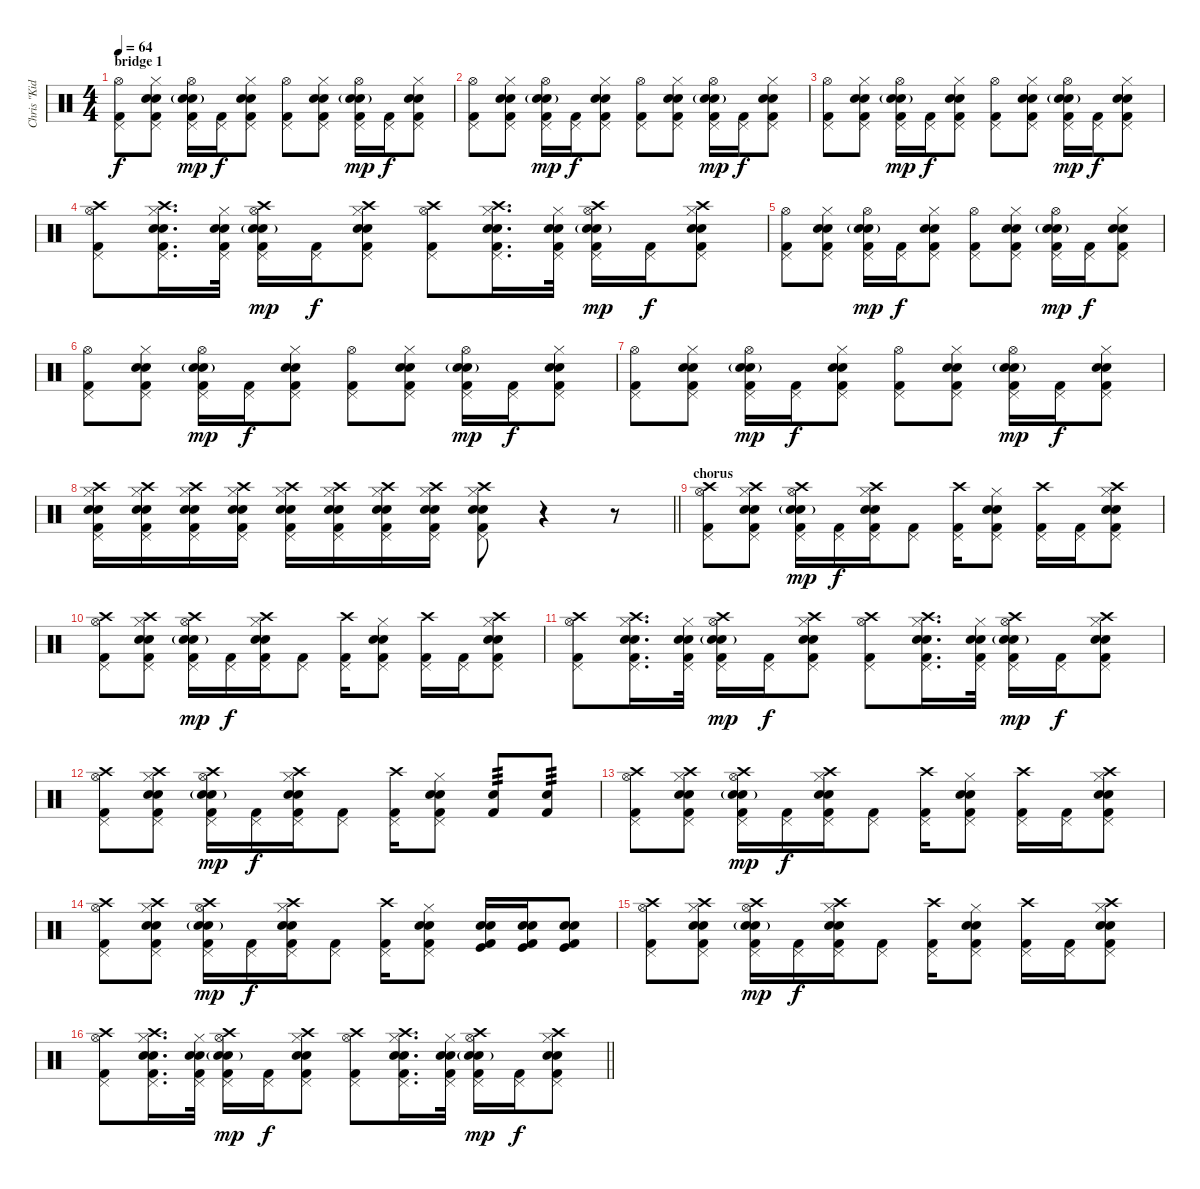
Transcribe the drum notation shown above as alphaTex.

\track ("Chris \"Kid\" Knapp" "Chris \"Kid") {instrument percussion}
\staff {score}
\articulation defaults
\ts (4 4)
\section ("" "bridge 1")
\tempo 64
\clef neutral
\ks c
("Hi-Hat (open)" "Kick (hit) 2" "Pedal Hi-Hat (hit)").8{dy f} ("Snare (hit) 2" "Snare (hit) 2" "Hi-Hat (closed)" "Kick (hit) 2" "Pedal Hi-Hat (hit)").8 ("Snare (hit) 2"{g} "Snare (hit) 2"{g} "Hi-Hat (open)" "Kick (hit) 2" "Pedal Hi-Hat (hit)").16{dy mp} ("Kick (hit) 2" "Pedal Hi-Hat (hit)").16{dy f} ("Snare (hit) 2" "Snare (hit) 2" "Hi-Hat (closed)" "Kick (hit) 2" "Pedal Hi-Hat (hit)").8 ("Hi-Hat (open)" "Kick (hit) 2" "Pedal Hi-Hat (hit)").8 ("Snare (hit) 2" "Snare (hit) 2" "Hi-Hat (closed)" "Kick (hit) 2" "Pedal Hi-Hat (hit)").8 ("Snare (hit) 2"{g} "Snare (hit) 2"{g} "Hi-Hat (open)" "Kick (hit) 2" "Pedal Hi-Hat (hit)").16{dy mp} ("Kick (hit) 2" "Pedal Hi-Hat (hit)").16{dy f} ("Snare (hit) 2" "Snare (hit) 2" "Hi-Hat (closed)" "Kick (hit) 2" "Pedal Hi-Hat (hit)").8 |
("Hi-Hat (open)" "Kick (hit) 2" "Pedal Hi-Hat (hit)").8 ("Snare (hit) 2" "Snare (hit) 2" "Hi-Hat (closed)" "Kick (hit) 2" "Pedal Hi-Hat (hit)").8 ("Snare (hit) 2"{g} "Snare (hit) 2"{g} "Hi-Hat (open)" "Kick (hit) 2" "Pedal Hi-Hat (hit)").16{dy mp} ("Kick (hit) 2" "Pedal Hi-Hat (hit)").16{dy f} ("Snare (hit) 2" "Snare (hit) 2" "Hi-Hat (closed)" "Kick (hit) 2" "Pedal Hi-Hat (hit)").8 ("Hi-Hat (open)" "Kick (hit) 2" "Pedal Hi-Hat (hit)").8 ("Snare (hit) 2" "Snare (hit) 2" "Hi-Hat (closed)" "Kick (hit) 2" "Pedal Hi-Hat (hit)").8 ("Snare (hit) 2"{g} "Snare (hit) 2"{g} "Hi-Hat (open)" "Kick (hit) 2" "Pedal Hi-Hat (hit)").16{dy mp} ("Kick (hit) 2" "Pedal Hi-Hat (hit)").16{dy f} ("Snare (hit) 2" "Snare (hit) 2" "Hi-Hat (closed)" "Kick (hit) 2" "Pedal Hi-Hat (hit)").8 |
("Hi-Hat (open)" "Kick (hit) 2" "Pedal Hi-Hat (hit)").8 ("Snare (hit) 2" "Snare (hit) 2" "Hi-Hat (closed)" "Kick (hit) 2" "Pedal Hi-Hat (hit)").8 ("Snare (hit) 2"{g} "Snare (hit) 2"{g} "Hi-Hat (open)" "Kick (hit) 2" "Pedal Hi-Hat (hit)").16{dy mp} ("Kick (hit) 2" "Pedal Hi-Hat (hit)").16{dy f} ("Snare (hit) 2" "Snare (hit) 2" "Hi-Hat (closed)" "Kick (hit) 2" "Pedal Hi-Hat (hit)").8 ("Hi-Hat (open)" "Kick (hit) 2" "Pedal Hi-Hat (hit)").8 ("Snare (hit) 2" "Snare (hit) 2" "Hi-Hat (closed)" "Kick (hit) 2" "Pedal Hi-Hat (hit)").8 ("Snare (hit) 2"{g} "Snare (hit) 2"{g} "Hi-Hat (open)" "Kick (hit) 2" "Pedal Hi-Hat (hit)").16{dy mp} ("Kick (hit) 2" "Pedal Hi-Hat (hit)").16{dy f} ("Snare (hit) 2" "Snare (hit) 2" "Hi-Hat (closed)" "Kick (hit) 2" "Pedal Hi-Hat (hit)").8 |
("Hi-Hat (open)" "Kick (hit) 2" "Pedal Hi-Hat (hit)" "Crash high (hit)").8 ("Snare (hit) 2" "Snare (hit) 2" "Hi-Hat (closed)" "Kick (hit) 2" "Pedal Hi-Hat (hit)" "Crash high (hit)").16{d} ("Snare (hit) 2" "Snare (hit) 2" "Hi-Hat (closed)" "Kick (hit) 2" "Pedal Hi-Hat (hit)").32 ("Snare (hit) 2"{g} "Snare (hit) 2"{g} "Hi-Hat (open)" "Kick (hit) 2" "Pedal Hi-Hat (hit)" "Crash high (hit)").16{dy mp} ("Kick (hit) 2" "Pedal Hi-Hat (hit)").16{dy f} ("Snare (hit) 2" "Snare (hit) 2" "Hi-Hat (closed)" "Kick (hit) 2" "Pedal Hi-Hat (hit)" "Crash high (hit)").8 ("Hi-Hat (open)" "Kick (hit) 2" "Pedal Hi-Hat (hit)" "Crash high (hit)").8 ("Snare (hit) 2" "Snare (hit) 2" "Hi-Hat (closed)" "Kick (hit) 2" "Pedal Hi-Hat (hit)" "Crash high (hit)").16{d} ("Snare (hit) 2" "Snare (hit) 2" "Hi-Hat (closed)" "Kick (hit) 2" "Pedal Hi-Hat (hit)").32 ("Snare (hit) 2"{g} "Snare (hit) 2"{g} "Hi-Hat (open)" "Kick (hit) 2" "Pedal Hi-Hat (hit)" "Crash high (hit)").16{dy mp} ("Kick (hit) 2" "Pedal Hi-Hat (hit)").16{dy f} ("Snare (hit) 2" "Snare (hit) 2" "Hi-Hat (closed)" "Kick (hit) 2" "Pedal Hi-Hat (hit)" "Crash high (hit)").8 |
("Hi-Hat (open)" "Kick (hit) 2" "Pedal Hi-Hat (hit)").8 ("Snare (hit) 2" "Snare (hit) 2" "Hi-Hat (closed)" "Kick (hit) 2" "Pedal Hi-Hat (hit)").8 ("Snare (hit) 2"{g} "Snare (hit) 2"{g} "Hi-Hat (open)" "Kick (hit) 2" "Pedal Hi-Hat (hit)").16{dy mp} ("Kick (hit) 2" "Pedal Hi-Hat (hit)").16{dy f} ("Snare (hit) 2" "Snare (hit) 2" "Hi-Hat (closed)" "Kick (hit) 2" "Pedal Hi-Hat (hit)").8 ("Hi-Hat (open)" "Kick (hit) 2" "Pedal Hi-Hat (hit)").8 ("Snare (hit) 2" "Snare (hit) 2" "Hi-Hat (closed)" "Kick (hit) 2" "Pedal Hi-Hat (hit)").8 ("Snare (hit) 2"{g} "Snare (hit) 2"{g} "Hi-Hat (open)" "Kick (hit) 2" "Pedal Hi-Hat (hit)").16{dy mp} ("Kick (hit) 2" "Pedal Hi-Hat (hit)").16{dy f} ("Snare (hit) 2" "Snare (hit) 2" "Hi-Hat (closed)" "Kick (hit) 2" "Pedal Hi-Hat (hit)").8 |
("Hi-Hat (open)" "Kick (hit) 2" "Pedal Hi-Hat (hit)").8 ("Snare (hit) 2" "Snare (hit) 2" "Hi-Hat (closed)" "Kick (hit) 2" "Pedal Hi-Hat (hit)").8 ("Snare (hit) 2"{g} "Snare (hit) 2"{g} "Hi-Hat (open)" "Kick (hit) 2" "Pedal Hi-Hat (hit)").16{dy mp} ("Kick (hit) 2" "Pedal Hi-Hat (hit)").16{dy f} ("Snare (hit) 2" "Snare (hit) 2" "Hi-Hat (closed)" "Kick (hit) 2" "Pedal Hi-Hat (hit)").8 ("Hi-Hat (open)" "Kick (hit) 2" "Pedal Hi-Hat (hit)").8 ("Snare (hit) 2" "Snare (hit) 2" "Hi-Hat (closed)" "Kick (hit) 2" "Pedal Hi-Hat (hit)").8 ("Snare (hit) 2"{g} "Snare (hit) 2"{g} "Hi-Hat (open)" "Kick (hit) 2" "Pedal Hi-Hat (hit)").16{dy mp} ("Kick (hit) 2" "Pedal Hi-Hat (hit)").16{dy f} ("Snare (hit) 2" "Snare (hit) 2" "Hi-Hat (closed)" "Kick (hit) 2" "Pedal Hi-Hat (hit)").8 |
("Hi-Hat (open)" "Kick (hit) 2" "Pedal Hi-Hat (hit)").8 ("Snare (hit) 2" "Snare (hit) 2" "Hi-Hat (closed)" "Kick (hit) 2" "Pedal Hi-Hat (hit)").8 ("Snare (hit) 2"{g} "Snare (hit) 2"{g} "Hi-Hat (open)" "Kick (hit) 2" "Pedal Hi-Hat (hit)").16{dy mp} ("Kick (hit) 2" "Pedal Hi-Hat (hit)").16{dy f} ("Snare (hit) 2" "Snare (hit) 2" "Hi-Hat (closed)" "Kick (hit) 2" "Pedal Hi-Hat (hit)").8 ("Hi-Hat (open)" "Kick (hit) 2" "Pedal Hi-Hat (hit)").8 ("Snare (hit) 2" "Snare (hit) 2" "Hi-Hat (closed)" "Kick (hit) 2" "Pedal Hi-Hat (hit)").8 ("Snare (hit) 2"{g} "Snare (hit) 2"{g} "Hi-Hat (open)" "Kick (hit) 2" "Pedal Hi-Hat (hit)").16{dy mp} ("Kick (hit) 2" "Pedal Hi-Hat (hit)").16{dy f} ("Snare (hit) 2" "Snare (hit) 2" "Hi-Hat (closed)" "Kick (hit) 2" "Pedal Hi-Hat (hit)").8 |
\barLineRight lightlight
("Snare (hit) 2" "Snare (hit) 2" "Hi-Hat (closed)" "Kick (hit) 2" "Pedal Hi-Hat (hit)" "Crash high (hit)").16 ("Snare (hit) 2" "Snare (hit) 2" "Hi-Hat (closed)" "Kick (hit) 2" "Pedal Hi-Hat (hit)" "Crash high (hit)").16 ("Snare (hit) 2" "Snare (hit) 2" "Hi-Hat (closed)" "Kick (hit) 2" "Pedal Hi-Hat (hit)" "Crash high (hit)").16 ("Snare (hit) 2" "Snare (hit) 2" "Hi-Hat (closed)" "Kick (hit) 2" "Pedal Hi-Hat (hit)" "Crash high (hit)").16 ("Snare (hit) 2" "Snare (hit) 2" "Hi-Hat (closed)" "Kick (hit) 2" "Pedal Hi-Hat (hit)" "Crash high (hit)").16 ("Snare (hit) 2" "Snare (hit) 2" "Hi-Hat (closed)" "Kick (hit) 2" "Pedal Hi-Hat (hit)" "Crash high (hit)").16 ("Snare (hit) 2" "Snare (hit) 2" "Hi-Hat (closed)" "Kick (hit) 2" "Pedal Hi-Hat (hit)" "Crash high (hit)").16 ("Snare (hit) 2" "Snare (hit) 2" "Hi-Hat (closed)" "Kick (hit) 2" "Pedal Hi-Hat (hit)" "Crash high (hit)").16 ("Snare (hit) 2" "Snare (hit) 2" "Hi-Hat (closed)" "Kick (hit) 2" "Pedal Hi-Hat (hit)" "Crash high (hit)").8 r.4 r.8 |
\section ("" "chorus")
("Hi-Hat (open)" "Kick (hit) 2" "Pedal Hi-Hat (hit)" "Crash high (hit)").8 ("Snare (hit) 2" "Snare (hit) 2" "Hi-Hat (closed)" "Kick (hit) 2" "Pedal Hi-Hat (hit)" "Crash high (hit)").8 ("Snare (hit) 2"{g} "Snare (hit) 2"{g} "Hi-Hat (open)" "Kick (hit) 2" "Pedal Hi-Hat (hit)" "Crash high (hit)").16{dy mp} ("Kick (hit) 2" "Pedal Hi-Hat (hit)").16{dy f} ("Snare (hit) 2" "Snare (hit) 2" "Hi-Hat (closed)" "Kick (hit) 2" "Pedal Hi-Hat (hit)" "Crash high (hit)").16 ("Kick (hit) 2" "Pedal Hi-Hat (hit)").8 ("Kick (hit) 2" "Pedal Hi-Hat (hit)" "Crash high (hit)").16 ("Snare (hit) 2" "Snare (hit) 2" "Hi-Hat (closed)" "Kick (hit) 2" "Pedal Hi-Hat (hit)").8 ("Kick (hit) 2" "Pedal Hi-Hat (hit)" "Crash high (hit)").16 ("Kick (hit) 2" "Pedal Hi-Hat (hit)").16 ("Snare (hit) 2" "Snare (hit) 2" "Hi-Hat (closed)" "Kick (hit) 2" "Pedal Hi-Hat (hit)" "Crash high (hit)").8 |
("Hi-Hat (open)" "Kick (hit) 2" "Pedal Hi-Hat (hit)" "Crash high (hit)").8 ("Snare (hit) 2" "Snare (hit) 2" "Hi-Hat (closed)" "Kick (hit) 2" "Pedal Hi-Hat (hit)" "Crash high (hit)").8 ("Snare (hit) 2"{g} "Snare (hit) 2"{g} "Hi-Hat (open)" "Kick (hit) 2" "Pedal Hi-Hat (hit)" "Crash high (hit)").16{dy mp} ("Kick (hit) 2" "Pedal Hi-Hat (hit)").16{dy f} ("Snare (hit) 2" "Snare (hit) 2" "Hi-Hat (closed)" "Kick (hit) 2" "Pedal Hi-Hat (hit)" "Crash high (hit)").16 ("Kick (hit) 2" "Pedal Hi-Hat (hit)").8 ("Kick (hit) 2" "Pedal Hi-Hat (hit)" "Crash high (hit)").16 ("Snare (hit) 2" "Snare (hit) 2" "Hi-Hat (closed)" "Kick (hit) 2" "Pedal Hi-Hat (hit)").8 ("Kick (hit) 2" "Pedal Hi-Hat (hit)" "Crash high (hit)").16 ("Kick (hit) 2" "Pedal Hi-Hat (hit)").16 ("Snare (hit) 2" "Snare (hit) 2" "Hi-Hat (closed)" "Kick (hit) 2" "Pedal Hi-Hat (hit)" "Crash high (hit)").8 |
("Hi-Hat (open)" "Kick (hit) 2" "Pedal Hi-Hat (hit)" "Crash high (hit)").8 ("Snare (hit) 2" "Snare (hit) 2" "Hi-Hat (closed)" "Kick (hit) 2" "Pedal Hi-Hat (hit)" "Crash high (hit)").16{d} ("Snare (hit) 2" "Snare (hit) 2" "Hi-Hat (closed)" "Kick (hit) 2" "Pedal Hi-Hat (hit)").32 ("Snare (hit) 2"{g} "Snare (hit) 2"{g} "Hi-Hat (open)" "Kick (hit) 2" "Pedal Hi-Hat (hit)" "Crash high (hit)").16{dy mp} ("Kick (hit) 2" "Pedal Hi-Hat (hit)").16{dy f} ("Snare (hit) 2" "Snare (hit) 2" "Hi-Hat (closed)" "Kick (hit) 2" "Pedal Hi-Hat (hit)" "Crash high (hit)").8 ("Hi-Hat (open)" "Kick (hit) 2" "Pedal Hi-Hat (hit)" "Crash high (hit)").8 ("Snare (hit) 2" "Snare (hit) 2" "Hi-Hat (closed)" "Kick (hit) 2" "Pedal Hi-Hat (hit)" "Crash high (hit)").16{d} ("Snare (hit) 2" "Snare (hit) 2" "Hi-Hat (closed)" "Kick (hit) 2" "Pedal Hi-Hat (hit)").32 ("Snare (hit) 2"{g} "Snare (hit) 2"{g} "Hi-Hat (open)" "Kick (hit) 2" "Pedal Hi-Hat (hit)" "Crash high (hit)").16{dy mp} ("Kick (hit) 2" "Pedal Hi-Hat (hit)").16{dy f} ("Snare (hit) 2" "Snare (hit) 2" "Hi-Hat (closed)" "Kick (hit) 2" "Pedal Hi-Hat (hit)" "Crash high (hit)").8 |
("Hi-Hat (open)" "Kick (hit) 2" "Pedal Hi-Hat (hit)" "Crash high (hit)").8 ("Snare (hit) 2" "Snare (hit) 2" "Hi-Hat (closed)" "Kick (hit) 2" "Pedal Hi-Hat (hit)" "Crash high (hit)").8 ("Snare (hit) 2"{g} "Snare (hit) 2"{g} "Hi-Hat (open)" "Kick (hit) 2" "Pedal Hi-Hat (hit)" "Crash high (hit)").16{dy mp} ("Kick (hit) 2" "Pedal Hi-Hat (hit)").16{dy f} ("Snare (hit) 2" "Snare (hit) 2" "Hi-Hat (closed)" "Kick (hit) 2" "Pedal Hi-Hat (hit)" "Crash high (hit)").16 ("Kick (hit) 2" "Pedal Hi-Hat (hit)").8 ("Kick (hit) 2" "Pedal Hi-Hat (hit)" "Crash high (hit)").16 ("Snare (hit) 2" "Snare (hit) 2" "Hi-Hat (closed)" "Kick (hit) 2" "Pedal Hi-Hat (hit)").8 ("Snare (hit) 2" "Kick (hit) 2").8{tp 3} ("Snare (hit) 2" "Kick (hit) 2").8{tp 3} |
("Hi-Hat (open)" "Kick (hit) 2" "Pedal Hi-Hat (hit)" "Crash high (hit)").8 ("Snare (hit) 2" "Snare (hit) 2" "Hi-Hat (closed)" "Kick (hit) 2" "Pedal Hi-Hat (hit)" "Crash high (hit)").8 ("Snare (hit) 2"{g} "Snare (hit) 2"{g} "Hi-Hat (open)" "Kick (hit) 2" "Pedal Hi-Hat (hit)" "Crash high (hit)").16{dy mp} ("Kick (hit) 2" "Pedal Hi-Hat (hit)").16{dy f} ("Snare (hit) 2" "Snare (hit) 2" "Hi-Hat (closed)" "Kick (hit) 2" "Pedal Hi-Hat (hit)" "Crash high (hit)").16 ("Kick (hit) 2" "Pedal Hi-Hat (hit)").8 ("Kick (hit) 2" "Pedal Hi-Hat (hit)" "Crash high (hit)").16 ("Snare (hit) 2" "Snare (hit) 2" "Hi-Hat (closed)" "Kick (hit) 2" "Pedal Hi-Hat (hit)").8 ("Kick (hit) 2" "Pedal Hi-Hat (hit)" "Crash high (hit)").16 ("Kick (hit) 2" "Pedal Hi-Hat (hit)").16 ("Snare (hit) 2" "Snare (hit) 2" "Hi-Hat (closed)" "Kick (hit) 2" "Pedal Hi-Hat (hit)" "Crash high (hit)").8 |
("Hi-Hat (open)" "Kick (hit) 2" "Pedal Hi-Hat (hit)" "Crash high (hit)").8 ("Snare (hit) 2" "Snare (hit) 2" "Hi-Hat (closed)" "Kick (hit) 2" "Pedal Hi-Hat (hit)" "Crash high (hit)").8 ("Snare (hit) 2"{g} "Snare (hit) 2"{g} "Hi-Hat (open)" "Kick (hit) 2" "Pedal Hi-Hat (hit)" "Crash high (hit)").16{dy mp} ("Kick (hit) 2" "Pedal Hi-Hat (hit)").16{dy f} ("Snare (hit) 2" "Snare (hit) 2" "Hi-Hat (closed)" "Kick (hit) 2" "Pedal Hi-Hat (hit)" "Crash high (hit)").16 ("Kick (hit) 2" "Pedal Hi-Hat (hit)").8 ("Kick (hit) 2" "Pedal Hi-Hat (hit)" "Crash high (hit)").16 ("Snare (hit) 2" "Snare (hit) 2" "Hi-Hat (closed)" "Kick (hit) 2" "Pedal Hi-Hat (hit)").8 ("Snare (hit) 2" "Snare (hit) 2" "Kick (hit) 2" "Kick (hit)").16 ("Electric Snare (hit)" "Electric Snare (hit)" "Kick (hit) 2" "Kick (hit)").16 ("Snare (hit) 2" "Snare (hit) 2" "Kick (hit) 2" "Kick (hit)").8 |
("Hi-Hat (open)" "Kick (hit) 2" "Pedal Hi-Hat (hit)" "Crash high (hit)").8 ("Snare (hit) 2" "Snare (hit) 2" "Hi-Hat (closed)" "Kick (hit) 2" "Pedal Hi-Hat (hit)" "Crash high (hit)").8 ("Snare (hit) 2"{g} "Snare (hit) 2"{g} "Hi-Hat (open)" "Kick (hit) 2" "Pedal Hi-Hat (hit)" "Crash high (hit)").16{dy mp} ("Kick (hit) 2" "Pedal Hi-Hat (hit)").16{dy f} ("Snare (hit) 2" "Snare (hit) 2" "Hi-Hat (closed)" "Kick (hit) 2" "Pedal Hi-Hat (hit)" "Crash high (hit)").16 ("Kick (hit) 2" "Pedal Hi-Hat (hit)").8 ("Kick (hit) 2" "Pedal Hi-Hat (hit)" "Crash high (hit)").16 ("Snare (hit) 2" "Snare (hit) 2" "Hi-Hat (closed)" "Kick (hit) 2" "Pedal Hi-Hat (hit)").8 ("Kick (hit) 2" "Pedal Hi-Hat (hit)" "Crash high (hit)").16 ("Kick (hit) 2" "Pedal Hi-Hat (hit)").16 ("Snare (hit) 2" "Snare (hit) 2" "Hi-Hat (closed)" "Kick (hit) 2" "Pedal Hi-Hat (hit)" "Crash high (hit)").8 |
\barLineRight lightlight
("Hi-Hat (open)" "Kick (hit) 2" "Pedal Hi-Hat (hit)" "Crash high (hit)").8 ("Snare (hit) 2" "Snare (hit) 2" "Hi-Hat (closed)" "Kick (hit) 2" "Pedal Hi-Hat (hit)" "Crash high (hit)").16{d} ("Snare (hit) 2" "Snare (hit) 2" "Hi-Hat (closed)" "Kick (hit) 2" "Pedal Hi-Hat (hit)").32 ("Snare (hit) 2"{g} "Snare (hit) 2"{g} "Hi-Hat (open)" "Kick (hit) 2" "Pedal Hi-Hat (hit)" "Crash high (hit)").16{dy mp} ("Kick (hit) 2" "Pedal Hi-Hat (hit)").16{dy f} ("Snare (hit) 2" "Snare (hit) 2" "Hi-Hat (closed)" "Kick (hit) 2" "Pedal Hi-Hat (hit)" "Crash high (hit)").8 ("Hi-Hat (open)" "Kick (hit) 2" "Pedal Hi-Hat (hit)" "Crash high (hit)").8 ("Snare (hit) 2" "Snare (hit) 2" "Hi-Hat (closed)" "Kick (hit) 2" "Pedal Hi-Hat (hit)" "Crash high (hit)").16{d} ("Snare (hit) 2" "Snare (hit) 2" "Hi-Hat (closed)" "Kick (hit) 2" "Pedal Hi-Hat (hit)").32 ("Snare (hit) 2"{g} "Snare (hit) 2"{g} "Hi-Hat (open)" "Kick (hit) 2" "Pedal Hi-Hat (hit)" "Crash high (hit)").16{dy mp} ("Kick (hit) 2" "Pedal Hi-Hat (hit)").16{dy f} ("Snare (hit) 2" "Snare (hit) 2" "Hi-Hat (closed)" "Kick (hit) 2" "Pedal Hi-Hat (hit)" "Crash high (hit)").8
